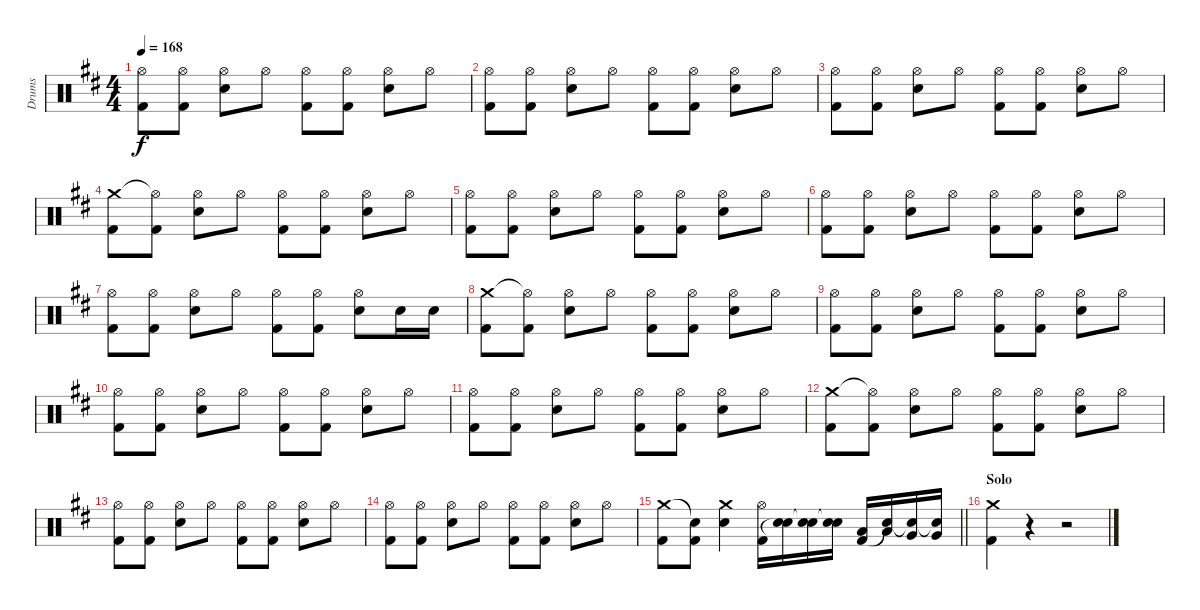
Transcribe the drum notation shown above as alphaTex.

\track ("Drums" "Drums") {instrument percussion}
\staff {score}
\articulation defaults
\ts (4 4)
\tempo 168
\clef neutral
\ks d
("Hi-Hat (open)" "Kick (hit) 2").8{dy f} ("Hi-Hat (open)" "Kick (hit) 2").8 ("Hi-Hat (open)" "Electric Snare (hit)").8 "Hi-Hat (open)".8 ("Hi-Hat (open)" "Kick (hit) 2").8 ("Hi-Hat (open)" "Kick (hit) 2").8 ("Hi-Hat (open)" "Electric Snare (hit)").8 "Hi-Hat (open)".8 |
("Hi-Hat (open)" "Kick (hit) 2").8 ("Hi-Hat (open)" "Kick (hit) 2").8 ("Hi-Hat (open)" "Electric Snare (hit)").8 "Hi-Hat (open)".8 ("Hi-Hat (open)" "Kick (hit) 2").8 ("Hi-Hat (open)" "Kick (hit) 2").8 ("Hi-Hat (open)" "Electric Snare (hit)").8 "Hi-Hat (open)".8 |
("Hi-Hat (open)" "Kick (hit) 2").8 ("Hi-Hat (open)" "Kick (hit) 2").8 ("Hi-Hat (open)" "Electric Snare (hit)").8 "Hi-Hat (open)".8 ("Hi-Hat (open)" "Kick (hit) 2").8 ("Hi-Hat (open)" "Kick (hit) 2").8 ("Hi-Hat (open)" "Electric Snare (hit)").8 "Hi-Hat (open)".8 |
("Crash medium (hit)" "Kick (hit) 2").8 ("Hi-Hat (open)"{t} "Kick (hit) 2").8 ("Hi-Hat (open)" "Electric Snare (hit)").8 "Hi-Hat (open)".8 ("Hi-Hat (open)" "Kick (hit) 2").8 ("Hi-Hat (open)" "Kick (hit) 2").8 ("Hi-Hat (open)" "Electric Snare (hit)").8 "Hi-Hat (open)".8 |
("Hi-Hat (open)" "Kick (hit) 2").8 ("Hi-Hat (open)" "Kick (hit) 2").8 ("Hi-Hat (open)" "Electric Snare (hit)").8 "Hi-Hat (open)".8 ("Hi-Hat (open)" "Kick (hit) 2").8 ("Hi-Hat (open)" "Kick (hit) 2").8 ("Hi-Hat (open)" "Electric Snare (hit)").8 "Hi-Hat (open)".8 |
("Hi-Hat (open)" "Kick (hit) 2").8 ("Hi-Hat (open)" "Kick (hit) 2").8 ("Hi-Hat (open)" "Electric Snare (hit)").8 "Hi-Hat (open)".8 ("Hi-Hat (open)" "Kick (hit) 2").8 ("Hi-Hat (open)" "Kick (hit) 2").8 ("Hi-Hat (open)" "Electric Snare (hit)").8 "Hi-Hat (open)".8 |
("Hi-Hat (open)" "Kick (hit) 2").8 ("Hi-Hat (open)" "Kick (hit) 2").8 ("Hi-Hat (open)" "Electric Snare (hit)").8 "Hi-Hat (open)".8 ("Hi-Hat (open)" "Kick (hit) 2").8 ("Hi-Hat (open)" "Kick (hit) 2").8 ("Hi-Hat (open)" "Electric Snare (hit)").8 "Electric Snare (hit)".16 "Electric Snare (hit)".16 |
("Crash medium (hit)" "Kick (hit) 2").8 ("Hi-Hat (open)"{t} "Kick (hit) 2").8 ("Hi-Hat (open)" "Electric Snare (hit)").8 "Hi-Hat (open)".8 ("Hi-Hat (open)" "Kick (hit) 2").8 ("Hi-Hat (open)" "Kick (hit) 2").8 ("Hi-Hat (open)" "Electric Snare (hit)").8 "Hi-Hat (open)".8 |
("Hi-Hat (open)" "Kick (hit) 2").8 ("Hi-Hat (open)" "Kick (hit) 2").8 ("Hi-Hat (open)" "Electric Snare (hit)").8 "Hi-Hat (open)".8 ("Hi-Hat (open)" "Kick (hit) 2").8 ("Hi-Hat (open)" "Kick (hit) 2").8 ("Hi-Hat (open)" "Electric Snare (hit)").8 "Hi-Hat (open)".8 |
("Hi-Hat (open)" "Kick (hit) 2").8 ("Hi-Hat (open)" "Kick (hit) 2").8 ("Hi-Hat (open)" "Electric Snare (hit)").8 "Hi-Hat (open)".8 ("Hi-Hat (open)" "Kick (hit) 2").8 ("Hi-Hat (open)" "Kick (hit) 2").8 ("Hi-Hat (open)" "Electric Snare (hit)").8 "Hi-Hat (open)".8 |
("Hi-Hat (open)" "Kick (hit) 2").8 ("Hi-Hat (open)" "Kick (hit) 2").8 ("Hi-Hat (open)" "Electric Snare (hit)").8 "Hi-Hat (open)".8 ("Hi-Hat (open)" "Kick (hit) 2").8 ("Hi-Hat (open)" "Kick (hit) 2").8 ("Hi-Hat (open)" "Electric Snare (hit)").8 "Hi-Hat (open)".8 |
("Crash medium (hit)" "Kick (hit) 2").8 ("Hi-Hat (open)"{t} "Kick (hit) 2").8 ("Hi-Hat (open)" "Electric Snare (hit)").8 "Hi-Hat (open)".8 ("Hi-Hat (open)" "Kick (hit) 2").8 ("Hi-Hat (open)" "Kick (hit) 2").8 ("Hi-Hat (open)" "Electric Snare (hit)").8 "Hi-Hat (open)".8 |
("Hi-Hat (open)" "Kick (hit) 2").8 ("Hi-Hat (open)" "Kick (hit) 2").8 ("Hi-Hat (open)" "Electric Snare (hit)").8 "Hi-Hat (open)".8 ("Hi-Hat (open)" "Kick (hit) 2").8 ("Hi-Hat (open)" "Kick (hit) 2").8 ("Hi-Hat (open)" "Electric Snare (hit)").8 "Hi-Hat (open)".8 |
("Hi-Hat (open)" "Kick (hit) 2").8 ("Hi-Hat (open)" "Kick (hit) 2").8 ("Hi-Hat (open)" "Electric Snare (hit)").8 "Hi-Hat (open)".8 ("Hi-Hat (open)" "Kick (hit) 2").8 ("Hi-Hat (open)" "Kick (hit) 2").8 ("Hi-Hat (open)" "Electric Snare (hit)").8 "Hi-Hat (open)".8 |
\barLineRight lightlight
("Crash medium (hit)" "Kick (hit) 2").8 ("Snare (hit)"{t} "Kick (hit) 2").8 ("Crash medium (hit)" "Electric Snare (hit)").4 ("Hi-Hat (open)" "Kick (hit) 2").16 ("Electric Snare (hit)" "Snare (hit)"{t}).16 ("Electric Snare (hit)" "Snare (hit)"{t}).16 ("Electric Snare (hit)" "Snare (hit)"{t}).16 ("Low Tom (hit)" "Kick (hit) 2").16 ("Low Tom (hit)" "Snare (hit)"{t}).16 ("Very Low Tom (hit)" "Snare (hit)"{t}).16 ("Very Low Tom (hit)" "Snare (hit)"{t}).16 |
\section ("" "Solo")
("Crash medium (hit)" "Kick (hit) 2").4 r.4 r.2
